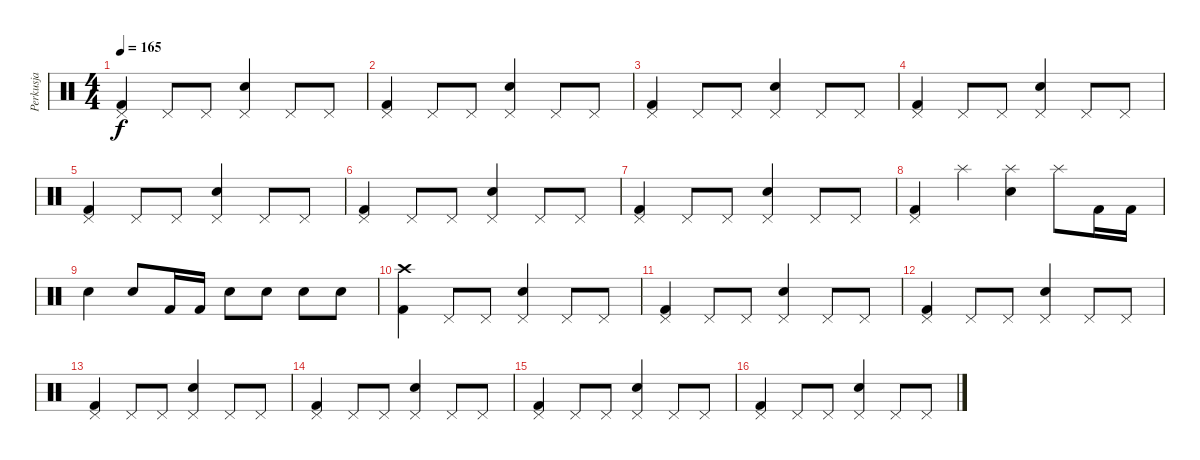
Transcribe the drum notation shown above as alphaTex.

\track ("Perkusja" "Perkusja") {instrument percussion}
\staff {score}
\articulation defaults
\ts (4 4)
\tempo 165
\clef neutral
\ks c
("Pedal Hi-Hat (hit)" "Kick (hit) 2").4{dy f} "Pedal Hi-Hat (hit)".8 "Pedal Hi-Hat (hit)".8 ("Pedal Hi-Hat (hit)" "Snare (hit) 2").4 "Pedal Hi-Hat (hit)".8 "Pedal Hi-Hat (hit)".8 |
("Pedal Hi-Hat (hit)" "Kick (hit) 2").4 "Pedal Hi-Hat (hit)".8 "Pedal Hi-Hat (hit)".8 ("Pedal Hi-Hat (hit)" "Snare (hit) 2").4 "Pedal Hi-Hat (hit)".8 "Pedal Hi-Hat (hit)".8 |
("Pedal Hi-Hat (hit)" "Kick (hit) 2").4 "Pedal Hi-Hat (hit)".8 "Pedal Hi-Hat (hit)".8 ("Pedal Hi-Hat (hit)" "Snare (hit) 2").4 "Pedal Hi-Hat (hit)".8 "Pedal Hi-Hat (hit)".8 |
("Pedal Hi-Hat (hit)" "Kick (hit) 2").4 "Pedal Hi-Hat (hit)".8 "Pedal Hi-Hat (hit)".8 ("Pedal Hi-Hat (hit)" "Snare (hit) 2").4 "Pedal Hi-Hat (hit)".8 "Pedal Hi-Hat (hit)".8 |
("Pedal Hi-Hat (hit)" "Kick (hit) 2").4 "Pedal Hi-Hat (hit)".8 "Pedal Hi-Hat (hit)".8 ("Pedal Hi-Hat (hit)" "Snare (hit) 2").4 "Pedal Hi-Hat (hit)".8 "Pedal Hi-Hat (hit)".8 |
("Pedal Hi-Hat (hit)" "Kick (hit) 2").4 "Pedal Hi-Hat (hit)".8 "Pedal Hi-Hat (hit)".8 ("Pedal Hi-Hat (hit)" "Snare (hit) 2").4 "Pedal Hi-Hat (hit)".8 "Pedal Hi-Hat (hit)".8 |
("Pedal Hi-Hat (hit)" "Kick (hit) 2").4 "Pedal Hi-Hat (hit)".8 "Pedal Hi-Hat (hit)".8 ("Pedal Hi-Hat (hit)" "Snare (hit) 2").4 "Pedal Hi-Hat (hit)".8 "Pedal Hi-Hat (hit)".8 |
("Pedal Hi-Hat (hit)" "Kick (hit) 2").4 "Splash (hit)".4 ("Splash (hit)" "Snare (hit) 2").4 "Splash (hit)".8 "Kick (hit) 2".16 "Kick (hit) 2".16 |
"Snare (hit) 2".4 "Snare (hit) 2".8 "Kick (hit) 2".16 "Kick (hit) 2".16 "Snare (hit) 2".8 "Snare (hit) 2".8 "Snare (hit) 2".8 "Snare (hit) 2".8 |
("Crash high (hit)" "Kick (hit) 2").4 "Pedal Hi-Hat (hit)".8 "Pedal Hi-Hat (hit)".8 ("Pedal Hi-Hat (hit)" "Snare (hit) 2").4 "Pedal Hi-Hat (hit)".8 "Pedal Hi-Hat (hit)".8 |
("Pedal Hi-Hat (hit)" "Kick (hit) 2").4 "Pedal Hi-Hat (hit)".8 "Pedal Hi-Hat (hit)".8 ("Pedal Hi-Hat (hit)" "Snare (hit) 2").4 "Pedal Hi-Hat (hit)".8 "Pedal Hi-Hat (hit)".8 |
("Pedal Hi-Hat (hit)" "Kick (hit) 2").4 "Pedal Hi-Hat (hit)".8 "Pedal Hi-Hat (hit)".8 ("Pedal Hi-Hat (hit)" "Snare (hit) 2").4 "Pedal Hi-Hat (hit)".8 "Pedal Hi-Hat (hit)".8 |
("Pedal Hi-Hat (hit)" "Kick (hit) 2").4 "Pedal Hi-Hat (hit)".8 "Pedal Hi-Hat (hit)".8 ("Pedal Hi-Hat (hit)" "Snare (hit) 2").4 "Pedal Hi-Hat (hit)".8 "Pedal Hi-Hat (hit)".8 |
("Pedal Hi-Hat (hit)" "Kick (hit) 2").4 "Pedal Hi-Hat (hit)".8 "Pedal Hi-Hat (hit)".8 ("Pedal Hi-Hat (hit)" "Snare (hit) 2").4 "Pedal Hi-Hat (hit)".8 "Pedal Hi-Hat (hit)".8 |
("Pedal Hi-Hat (hit)" "Kick (hit) 2").4 "Pedal Hi-Hat (hit)".8 "Pedal Hi-Hat (hit)".8 ("Pedal Hi-Hat (hit)" "Snare (hit) 2").4 "Pedal Hi-Hat (hit)".8 "Pedal Hi-Hat (hit)".8 |
("Pedal Hi-Hat (hit)" "Kick (hit) 2").4 "Pedal Hi-Hat (hit)".8 "Pedal Hi-Hat (hit)".8 ("Pedal Hi-Hat (hit)" "Snare (hit) 2").4 "Pedal Hi-Hat (hit)".8 "Pedal Hi-Hat (hit)".8
